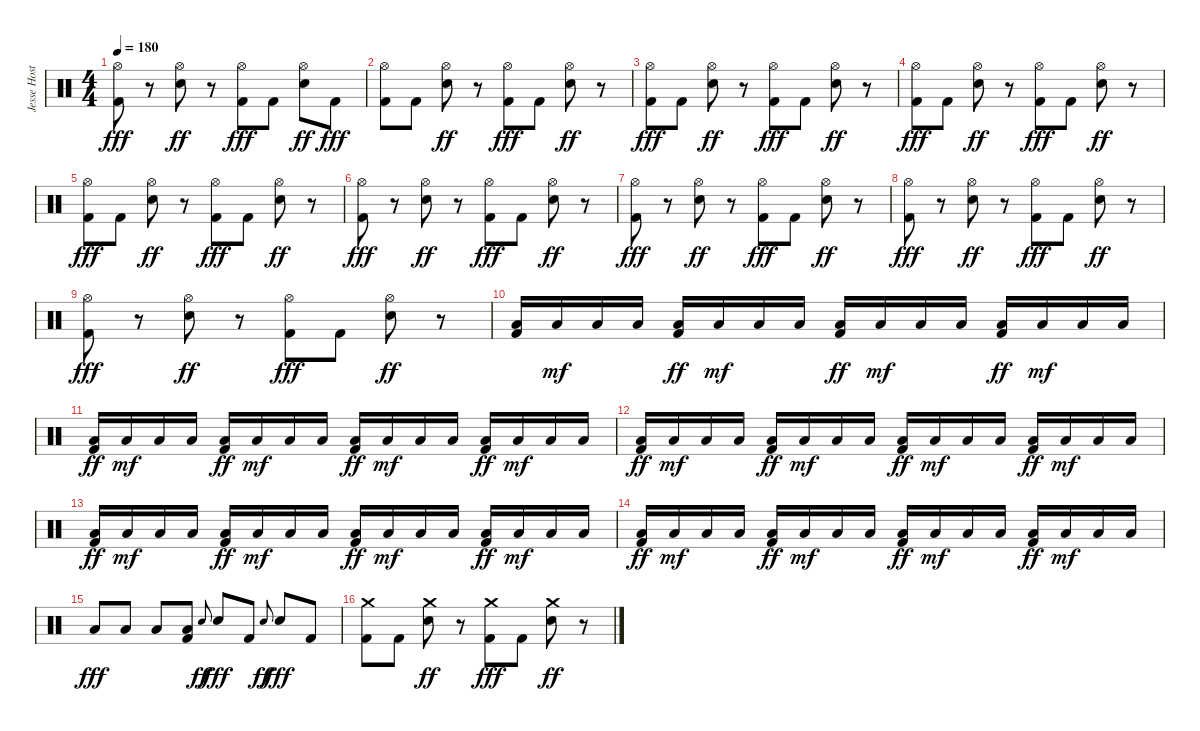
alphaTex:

\track ("Jesse Hostetler" "Jesse Host") {instrument percussion}
\staff {score}
\articulation defaults
\ts (4 4)
\tempo 180
\clef neutral
\ks c
("Hi-Hat (open)" "Kick (hit) 2").8{dy fff} r.8 ("Hi-Hat (open)" "Electric Snare (hit)").8{dy ff} r.8 ("Hi-Hat (open)" "Kick (hit) 2").8{dy fff} "Kick (hit) 2".8 ("Hi-Hat (open)" "Electric Snare (hit)").8{dy ff} "Kick (hit) 2".8{dy fff} |
("Hi-Hat (open)" "Kick (hit) 2").8 "Kick (hit) 2".8 ("Hi-Hat (open)" "Electric Snare (hit)").8{dy ff} r.8 ("Hi-Hat (open)" "Kick (hit) 2").8{dy fff} "Kick (hit) 2".8 ("Hi-Hat (open)" "Electric Snare (hit)").8{dy ff} r.8 |
("Hi-Hat (open)" "Kick (hit) 2").8{dy fff} "Kick (hit) 2".8 ("Hi-Hat (open)" "Electric Snare (hit)").8{dy ff} r.8 ("Hi-Hat (open)" "Kick (hit) 2").8{dy fff} "Kick (hit) 2".8 ("Hi-Hat (open)" "Electric Snare (hit)").8{dy ff} r.8 |
("Hi-Hat (open)" "Kick (hit) 2").8{dy fff} "Kick (hit) 2".8 ("Hi-Hat (open)" "Electric Snare (hit)").8{dy ff} r.8 ("Hi-Hat (open)" "Kick (hit) 2").8{dy fff} "Kick (hit) 2".8 ("Hi-Hat (open)" "Electric Snare (hit)").8{dy ff} r.8 |
("Hi-Hat (open)" "Kick (hit) 2").8{dy fff} "Kick (hit) 2".8 ("Hi-Hat (open)" "Electric Snare (hit)").8{dy ff} r.8 ("Hi-Hat (open)" "Kick (hit) 2").8{dy fff} "Kick (hit) 2".8 ("Hi-Hat (open)" "Electric Snare (hit)").8{dy ff} r.8 |
("Hi-Hat (open)" "Kick (hit) 2").8{dy fff} r.8 ("Hi-Hat (open)" "Electric Snare (hit)").8{dy ff} r.8 ("Hi-Hat (open)" "Kick (hit) 2").8{dy fff} "Kick (hit) 2".8 ("Hi-Hat (open)" "Electric Snare (hit)").8{dy ff} r.8 |
("Hi-Hat (open)" "Kick (hit) 2").8{dy fff} r.8 ("Hi-Hat (open)" "Electric Snare (hit)").8{dy ff} r.8 ("Hi-Hat (open)" "Kick (hit) 2").8{dy fff} "Kick (hit) 2".8 ("Hi-Hat (open)" "Electric Snare (hit)").8{dy ff} r.8 |
("Hi-Hat (open)" "Kick (hit) 2").8{dy fff} r.8 ("Hi-Hat (open)" "Electric Snare (hit)").8{dy ff} r.8 ("Hi-Hat (open)" "Kick (hit) 2").8{dy fff} "Kick (hit) 2".8 ("Hi-Hat (open)" "Electric Snare (hit)").8{dy ff} r.8 |
("Hi-Hat (open)" "Kick (hit) 2").8{dy fff} r.8 ("Hi-Hat (open)" "Electric Snare (hit)").8{dy ff} r.8 ("Hi-Hat (open)" "Kick (hit) 2").8{dy fff} "Kick (hit) 2".8 ("Hi-Hat (open)" "Electric Snare (hit)").8{dy ff} r.8 |
("Low Floor Tom (hit)" "Kick (hit) 2").16 "Low Floor Tom (hit)".16{dy mf} "Low Floor Tom (hit)".16 "Low Floor Tom (hit)".16 ("Low Floor Tom (hit)" "Kick (hit) 2").16{dy ff} "Low Floor Tom (hit)".16{dy mf} "Low Floor Tom (hit)".16 "Low Floor Tom (hit)".16 ("Low Floor Tom (hit)" "Kick (hit) 2").16{dy ff} "Low Floor Tom (hit)".16{dy mf} "Low Floor Tom (hit)".16 "Low Floor Tom (hit)".16 ("Low Floor Tom (hit)" "Kick (hit) 2").16{dy ff} "Low Floor Tom (hit)".16{dy mf} "Low Floor Tom (hit)".16 "Low Floor Tom (hit)".16 |
("Low Floor Tom (hit)" "Kick (hit) 2").16{dy ff} "Low Floor Tom (hit)".16{dy mf} "Low Floor Tom (hit)".16 "Low Floor Tom (hit)".16 ("Low Floor Tom (hit)" "Kick (hit) 2").16{dy ff} "Low Floor Tom (hit)".16{dy mf} "Low Floor Tom (hit)".16 "Low Floor Tom (hit)".16 ("Low Floor Tom (hit)" "Kick (hit) 2").16{dy ff} "Low Floor Tom (hit)".16{dy mf} "Low Floor Tom (hit)".16 "Low Floor Tom (hit)".16 ("Low Floor Tom (hit)" "Kick (hit) 2").16{dy ff} "Low Floor Tom (hit)".16{dy mf} "Low Floor Tom (hit)".16 "Low Floor Tom (hit)".16 |
("Low Floor Tom (hit)" "Kick (hit) 2").16{dy ff} "Low Floor Tom (hit)".16{dy mf} "Low Floor Tom (hit)".16 "Low Floor Tom (hit)".16 ("Low Floor Tom (hit)" "Kick (hit) 2").16{dy ff} "Low Floor Tom (hit)".16{dy mf} "Low Floor Tom (hit)".16 "Low Floor Tom (hit)".16 ("Low Floor Tom (hit)" "Kick (hit) 2").16{dy ff} "Low Floor Tom (hit)".16{dy mf} "Low Floor Tom (hit)".16 "Low Floor Tom (hit)".16 ("Low Floor Tom (hit)" "Kick (hit) 2").16{dy ff} "Low Floor Tom (hit)".16{dy mf} "Low Floor Tom (hit)".16 "Low Floor Tom (hit)".16 |
("Low Floor Tom (hit)" "Kick (hit) 2").16{dy ff} "Low Floor Tom (hit)".16{dy mf} "Low Floor Tom (hit)".16 "Low Floor Tom (hit)".16 ("Low Floor Tom (hit)" "Kick (hit) 2").16{dy ff} "Low Floor Tom (hit)".16{dy mf} "Low Floor Tom (hit)".16 "Low Floor Tom (hit)".16 ("Low Floor Tom (hit)" "Kick (hit) 2").16{dy ff} "Low Floor Tom (hit)".16{dy mf} "Low Floor Tom (hit)".16 "Low Floor Tom (hit)".16 ("Low Floor Tom (hit)" "Kick (hit) 2").16{dy ff} "Low Floor Tom (hit)".16{dy mf} "Low Floor Tom (hit)".16 "Low Floor Tom (hit)".16 |
("Low Floor Tom (hit)" "Kick (hit) 2").16{dy ff} "Low Floor Tom (hit)".16{dy mf} "Low Floor Tom (hit)".16 "Low Floor Tom (hit)".16 ("Low Floor Tom (hit)" "Kick (hit) 2").16{dy ff} "Low Floor Tom (hit)".16{dy mf} "Low Floor Tom (hit)".16 "Low Floor Tom (hit)".16 ("Low Floor Tom (hit)" "Kick (hit) 2").16{dy ff} "Low Floor Tom (hit)".16{dy mf} "Low Floor Tom (hit)".16 "Low Floor Tom (hit)".16 ("Low Floor Tom (hit)" "Kick (hit) 2").16{dy ff} "Low Floor Tom (hit)".16{dy mf} "Low Floor Tom (hit)".16 "Low Floor Tom (hit)".16 |
"Low Floor Tom (hit)".8{dy fff} "Low Floor Tom (hit)".8 "Low Floor Tom (hit)".8 ("Low Floor Tom (hit)" "Kick (hit) 2").8 "Electric Snare (hit)".8{gr onbeat dy ff} "Electric Snare (hit)".8{dy fff} "Kick (hit) 2".8 "Electric Snare (hit)".8{gr onbeat dy ff} "Electric Snare (hit)".8{dy fff} "Kick (hit) 2".8 |
("Crash medium (hit)" "Kick (hit) 2").8 "Kick (hit) 2".8 ("Crash medium (hit)" "Electric Snare (hit)").8{dy ff} r.8 ("Crash medium (hit)" "Kick (hit) 2").8{dy fff} "Kick (hit) 2".8 ("Crash medium (hit)" "Electric Snare (hit)").8{dy ff} r.8
